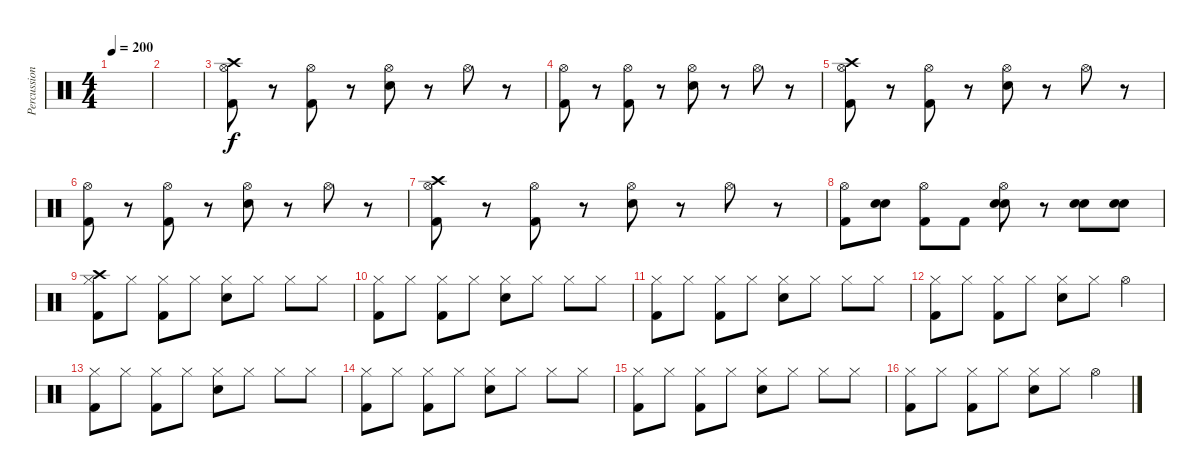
\track ("Percussioni" "Percussion") {instrument percussion}
\staff {score}
\articulation defaults
\ts (4 4)
\tempo 200
\clef neutral
\ks c
|
|
("Crash high (hit)" "Kick (hit) 2" "Hi-Hat (open)").8 r.8 ("Kick (hit) 2" "Hi-Hat (open)").8 r.8 ("Snare (hit) 2" "Hi-Hat (open)").8 r.8 "Hi-Hat (open)".8 r.8 |
("Kick (hit) 2" "Hi-Hat (open)").8 r.8 ("Kick (hit) 2" "Hi-Hat (open)").8 r.8 ("Snare (hit) 2" "Hi-Hat (open)").8 r.8 "Hi-Hat (open)".8 r.8 |
("Crash high (hit)" "Kick (hit) 2" "Hi-Hat (open)").8 r.8 ("Kick (hit) 2" "Hi-Hat (open)").8 r.8 ("Snare (hit) 2" "Hi-Hat (open)").8 r.8 "Hi-Hat (open)".8 r.8 |
("Kick (hit) 2" "Hi-Hat (open)").8 r.8 ("Kick (hit) 2" "Hi-Hat (open)").8 r.8 ("Snare (hit) 2" "Hi-Hat (open)").8 r.8 "Hi-Hat (open)".8 r.8 |
("Crash high (hit)" "Kick (hit) 2" "Hi-Hat (open)").8 r.8 ("Kick (hit) 2" "Hi-Hat (open)").8 r.8 ("Snare (hit) 2" "Hi-Hat (open)").8 r.8 "Hi-Hat (open)".8 r.8 |
("Kick (hit) 2" "Hi-Hat (open)").8 ("Snare (hit) 2" "Snare (hit) 2").8 ("Kick (hit) 2" "Hi-Hat (open)").8 "Kick (hit) 2".8 ("Snare (hit) 2" "Snare (hit) 2" "Hi-Hat (open)").8 r.8 ("Snare (hit) 2" "Snare (hit) 2").8 ("Snare (hit) 2" "Snare (hit) 2").8 |
("Crash high (hit)" "Kick (hit) 2" "Hi-Hat (closed)").8 "Hi-Hat (closed)".8 ("Kick (hit) 2" "Hi-Hat (closed)").8 "Hi-Hat (closed)".8 ("Snare (hit) 2" "Hi-Hat (closed)").8 "Hi-Hat (closed)".8 "Hi-Hat (closed)".8 "Hi-Hat (closed)".8 |
("Kick (hit) 2" "Hi-Hat (closed)").8 "Hi-Hat (closed)".8 ("Kick (hit) 2" "Hi-Hat (closed)").8 "Hi-Hat (closed)".8 ("Snare (hit) 2" "Hi-Hat (closed)").8 "Hi-Hat (closed)".8 "Hi-Hat (closed)".8 "Hi-Hat (closed)".8 |
("Kick (hit) 2" "Hi-Hat (closed)").8 "Hi-Hat (closed)".8 ("Kick (hit) 2" "Hi-Hat (closed)").8 "Hi-Hat (closed)".8 ("Snare (hit) 2" "Hi-Hat (closed)").8 "Hi-Hat (closed)".8 "Hi-Hat (closed)".8 "Hi-Hat (closed)".8 |
("Kick (hit) 2" "Hi-Hat (closed)").8 "Hi-Hat (closed)".8 ("Kick (hit) 2" "Hi-Hat (closed)").8 "Hi-Hat (closed)".8 ("Snare (hit) 2" "Hi-Hat (closed)").8 "Hi-Hat (closed)".8 "Hi-Hat (open)".4 |
("Kick (hit) 2" "Hi-Hat (closed)").8 "Hi-Hat (closed)".8 ("Kick (hit) 2" "Hi-Hat (closed)").8 "Hi-Hat (closed)".8 ("Snare (hit) 2" "Hi-Hat (closed)").8 "Hi-Hat (closed)".8 "Hi-Hat (closed)".8 "Hi-Hat (closed)".8 |
("Kick (hit) 2" "Hi-Hat (closed)").8 "Hi-Hat (closed)".8 ("Kick (hit) 2" "Hi-Hat (closed)").8 "Hi-Hat (closed)".8 ("Snare (hit) 2" "Hi-Hat (closed)").8 "Hi-Hat (closed)".8 "Hi-Hat (closed)".8 "Hi-Hat (closed)".8 |
("Kick (hit) 2" "Hi-Hat (closed)").8 "Hi-Hat (closed)".8 ("Kick (hit) 2" "Hi-Hat (closed)").8 "Hi-Hat (closed)".8 ("Snare (hit) 2" "Hi-Hat (closed)").8 "Hi-Hat (closed)".8 "Hi-Hat (closed)".8 "Hi-Hat (closed)".8 |
("Kick (hit) 2" "Hi-Hat (closed)").8 "Hi-Hat (closed)".8 ("Kick (hit) 2" "Hi-Hat (closed)").8 "Hi-Hat (closed)".8 ("Snare (hit) 2" "Hi-Hat (closed)").8 "Hi-Hat (closed)".8 "Hi-Hat (open)".4
